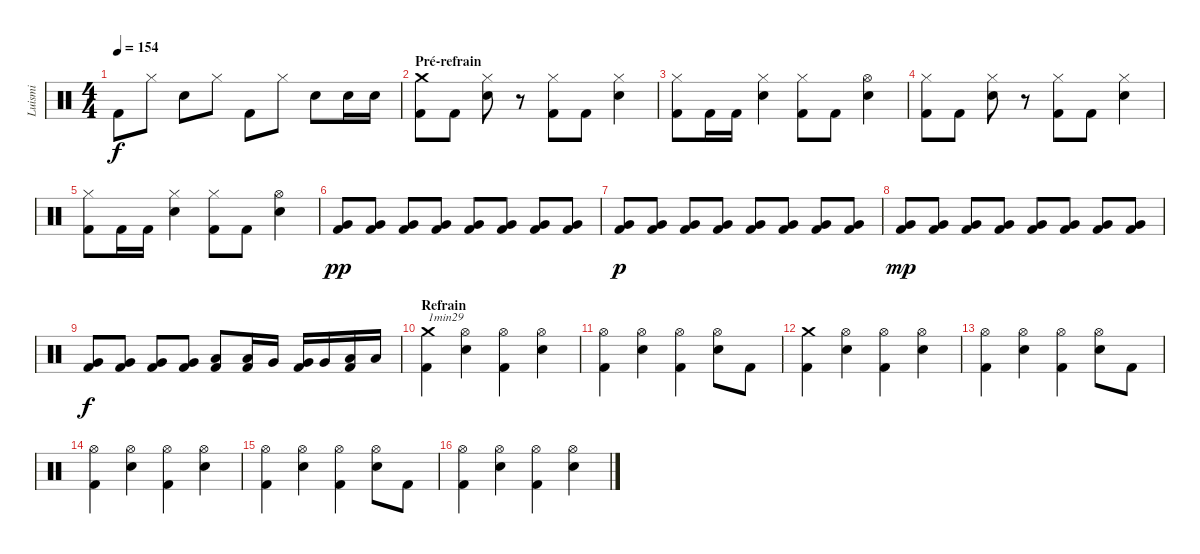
\track ("Luismi" "Luismi") {instrument percussion}
\staff {score}
\articulation defaults
\ts (4 4)
\tempo 154
\clef neutral
\ks c "Kick (hit) 2".8{dy f} "Hi-Hat (closed)".8 "Snare (hit) 2".8 "Hi-Hat (closed)".8 "Kick (hit) 2".8 "Hi-Hat (closed)".8 "Snare (hit) 2".8 "Snare (hit) 2".16 "Snare (hit) 2".16
|
\section ("" "Pré-refrain")
("Crash medium (hit)" "Kick (hit) 2").8 "Kick (hit) 2".8 ("Hi-Hat (closed)" "Snare (hit) 2").8 r.8 ("Hi-Hat (closed)" "Kick (hit) 2").8 "Kick (hit) 2".8 ("Hi-Hat (closed)" "Snare (hit) 2").4 |
("Hi-Hat (closed)" "Kick (hit) 2").8 "Kick (hit) 2".16 "Kick (hit) 2".16 ("Hi-Hat (closed)" "Snare (hit) 2").4 ("Hi-Hat (closed)" "Kick (hit) 2").8 "Kick (hit) 2".8 ("Hi-Hat (open)" "Snare (hit) 2").4 |
("Hi-Hat (closed)" "Kick (hit) 2").8 "Kick (hit) 2".8 ("Hi-Hat (closed)" "Snare (hit) 2").8 r.8 ("Hi-Hat (closed)" "Kick (hit) 2").8 "Kick (hit) 2".8 ("Hi-Hat (closed)" "Snare (hit) 2").4 |
("Hi-Hat (closed)" "Kick (hit) 2").8 "Kick (hit) 2".16 "Kick (hit) 2".16 ("Hi-Hat (closed)" "Snare (hit) 2").4 ("Hi-Hat (closed)" "Kick (hit) 2").8 "Kick (hit) 2".8 ("Hi-Hat (open)" "Snare (hit) 2").4 |
("Very Low Tom (hit)" "Kick (hit) 2").8{dy pp} ("Very Low Tom (hit)" "Kick (hit) 2").8 ("Very Low Tom (hit)" "Kick (hit) 2").8 ("Very Low Tom (hit)" "Kick (hit) 2").8 ("Very Low Tom (hit)" "Kick (hit) 2").8 ("Very Low Tom (hit)" "Kick (hit) 2").8 ("Very Low Tom (hit)" "Kick (hit) 2").8 ("Very Low Tom (hit)" "Kick (hit) 2").8 |
("Very Low Tom (hit)" "Kick (hit) 2").8{dy p} ("Very Low Tom (hit)" "Kick (hit) 2").8 ("Very Low Tom (hit)" "Kick (hit) 2").8 ("Very Low Tom (hit)" "Kick (hit) 2").8 ("Very Low Tom (hit)" "Kick (hit) 2").8 ("Very Low Tom (hit)" "Kick (hit) 2").8 ("Very Low Tom (hit)" "Kick (hit) 2").8 ("Very Low Tom (hit)" "Kick (hit) 2").8 |
("Very Low Tom (hit)" "Kick (hit) 2").8{dy mp} ("Very Low Tom (hit)" "Kick (hit) 2").8 ("Very Low Tom (hit)" "Kick (hit) 2").8 ("Very Low Tom (hit)" "Kick (hit) 2").8 ("Very Low Tom (hit)" "Kick (hit) 2").8 ("Very Low Tom (hit)" "Kick (hit) 2").8 ("Very Low Tom (hit)" "Kick (hit) 2").8 ("Very Low Tom (hit)" "Kick (hit) 2").8 |
("Very Low Tom (hit)" "Kick (hit) 2").8{dy f} ("Very Low Tom (hit)" "Kick (hit) 2").8 ("Very Low Tom (hit)" "Kick (hit) 2").8 ("Very Low Tom (hit)" "Kick (hit) 2").8 ("Low Tom (hit)" "Kick (hit) 2").8 ("Low Tom (hit)" "Kick (hit) 2").16 "Very Low Tom (hit)".16 ("Very Low Tom (hit)" "Kick (hit) 2").16 "Very Low Tom (hit)".16 ("Low Floor Tom (hit)" "Kick (hit) 2").16 "Low Floor Tom (hit)".16 |
\section ("" "Refrain")
("Crash medium (hit)" "Kick (hit) 2").4{txt "1min29"} ("Hi-Hat (open)" "Snare (hit) 2").4 ("Hi-Hat (open)" "Kick (hit) 2").4 ("Hi-Hat (open)" "Snare (hit) 2").4 |
("Hi-Hat (open)" "Kick (hit) 2").4 ("Hi-Hat (open)" "Snare (hit) 2").4 ("Hi-Hat (open)" "Kick (hit) 2").4 ("Hi-Hat (open)" "Snare (hit) 2").8 "Kick (hit) 2".8 |
("Crash medium (hit)" "Kick (hit) 2").4 ("Hi-Hat (open)" "Snare (hit) 2").4 ("Hi-Hat (open)" "Kick (hit) 2").4 ("Hi-Hat (open)" "Snare (hit) 2").4 |
("Hi-Hat (open)" "Kick (hit) 2").4 ("Hi-Hat (open)" "Snare (hit) 2").4 ("Hi-Hat (open)" "Kick (hit) 2").4 ("Hi-Hat (open)" "Snare (hit) 2").8 "Kick (hit) 2".8 |
("Hi-Hat (open)" "Kick (hit) 2").4 ("Hi-Hat (open)" "Snare (hit) 2").4 ("Hi-Hat (open)" "Kick (hit) 2").4 ("Hi-Hat (open)" "Snare (hit) 2").4 |
("Hi-Hat (open)" "Kick (hit) 2").4 ("Hi-Hat (open)" "Snare (hit) 2").4 ("Hi-Hat (open)" "Kick (hit) 2").4 ("Hi-Hat (open)" "Snare (hit) 2").8 "Kick (hit) 2".8 |
("Hi-Hat (open)" "Kick (hit) 2").4 ("Hi-Hat (open)" "Snare (hit) 2").4 ("Hi-Hat (open)" "Kick (hit) 2").4 ("Hi-Hat (open)" "Snare (hit) 2").4
